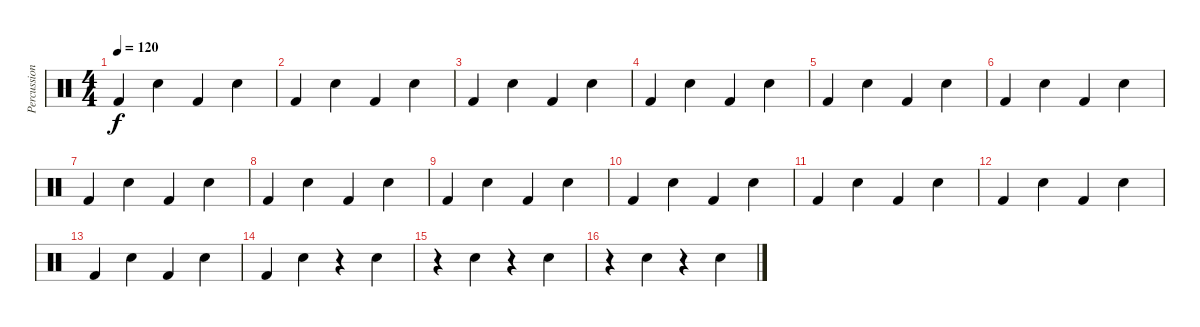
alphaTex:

\track ("Percussion" "Percussion") {instrument percussion}
\staff {score}
\articulation defaults
\ts (4 4)
\tempo 120
\clef neutral
\ks c "Kick (hit) 2".4{dy f} "Snare (hit) 2".4 "Kick (hit) 2".4 "Snare (hit) 2".4
|
"Kick (hit) 2".4 "Snare (hit) 2".4 "Kick (hit) 2".4 "Snare (hit) 2".4 |
"Kick (hit) 2".4 "Snare (hit) 2".4 "Kick (hit) 2".4 "Snare (hit) 2".4 |
"Kick (hit) 2".4 "Snare (hit) 2".4 "Kick (hit) 2".4 "Snare (hit) 2".4 |
"Kick (hit) 2".4 "Snare (hit) 2".4 "Kick (hit) 2".4 "Snare (hit) 2".4 |
"Kick (hit) 2".4 "Snare (hit) 2".4 "Kick (hit) 2".4 "Snare (hit) 2".4 |
"Kick (hit) 2".4 "Snare (hit) 2".4 "Kick (hit) 2".4 "Snare (hit) 2".4 |
"Kick (hit) 2".4 "Snare (hit) 2".4 "Kick (hit) 2".4 "Snare (hit) 2".4 |
"Kick (hit) 2".4 "Snare (hit) 2".4 "Kick (hit) 2".4 "Snare (hit) 2".4 |
"Kick (hit) 2".4 "Snare (hit) 2".4 "Kick (hit) 2".4 "Snare (hit) 2".4 |
"Kick (hit) 2".4 "Snare (hit) 2".4 "Kick (hit) 2".4 "Snare (hit) 2".4 |
"Kick (hit) 2".4 "Snare (hit) 2".4 "Kick (hit) 2".4 "Snare (hit) 2".4 |
"Kick (hit) 2".4 "Snare (hit) 2".4 "Kick (hit) 2".4 "Snare (hit) 2".4 |
"Kick (hit) 2".4 "Snare (hit) 2".4 r.4 "Snare (hit) 2".4 |
r.4 "Snare (hit) 2".4 r.4 "Snare (hit) 2".4 |
r.4 "Snare (hit) 2".4 r.4 "Snare (hit) 2".4
